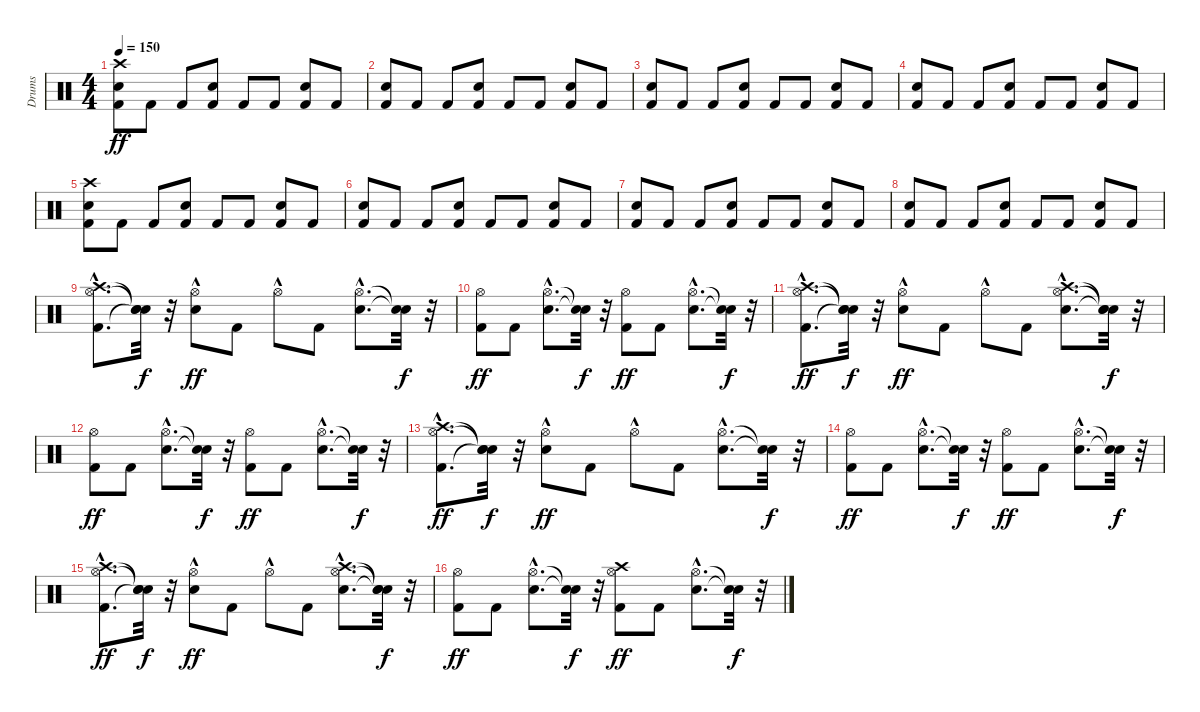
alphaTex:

\track ("Drums" "Drums") {instrument percussion}
\staff {score}
\articulation defaults
\ts (4 4)
\tempo 150
\clef neutral
\ks c
("Kick (hit) 2" "Snare (hit) 2" "Crash high (hit)").8{dy ff} "Kick (hit) 2".8 "Kick (hit) 2".8 ("Kick (hit) 2" "Snare (hit) 2").8 "Kick (hit) 2".8 "Kick (hit) 2".8 ("Kick (hit) 2" "Snare (hit) 2").8 "Kick (hit) 2".8 |
("Kick (hit) 2" "Snare (hit) 2").8 "Kick (hit) 2".8 "Kick (hit) 2".8 ("Kick (hit) 2" "Snare (hit) 2").8 "Kick (hit) 2".8 "Kick (hit) 2".8 ("Kick (hit) 2" "Snare (hit) 2").8 "Kick (hit) 2".8 |
("Kick (hit) 2" "Snare (hit) 2").8 "Kick (hit) 2".8 "Kick (hit) 2".8 ("Kick (hit) 2" "Snare (hit) 2").8 "Kick (hit) 2".8 "Kick (hit) 2".8 ("Kick (hit) 2" "Snare (hit) 2").8 "Kick (hit) 2".8 |
("Kick (hit) 2" "Snare (hit) 2").8 "Kick (hit) 2".8 "Kick (hit) 2".8 ("Kick (hit) 2" "Snare (hit) 2").8 "Kick (hit) 2".8 "Kick (hit) 2".8 ("Kick (hit) 2" "Snare (hit) 2").8 "Kick (hit) 2".8 |
("Kick (hit) 2" "Snare (hit) 2" "Crash high (hit)").8 "Kick (hit) 2".8 "Kick (hit) 2".8 ("Kick (hit) 2" "Snare (hit) 2").8 "Kick (hit) 2".8 "Kick (hit) 2".8 ("Kick (hit) 2" "Snare (hit) 2").8 "Kick (hit) 2".8 |
("Kick (hit) 2" "Snare (hit) 2").8 "Kick (hit) 2".8 "Kick (hit) 2".8 ("Kick (hit) 2" "Snare (hit) 2").8 "Kick (hit) 2".8 "Kick (hit) 2".8 ("Kick (hit) 2" "Snare (hit) 2").8 "Kick (hit) 2".8 |
("Kick (hit) 2" "Snare (hit) 2").8 "Kick (hit) 2".8 "Kick (hit) 2".8 ("Kick (hit) 2" "Snare (hit) 2").8 "Kick (hit) 2".8 "Kick (hit) 2".8 ("Kick (hit) 2" "Snare (hit) 2").8 "Kick (hit) 2".8 |
("Kick (hit) 2" "Snare (hit) 2").8 "Kick (hit) 2".8 "Kick (hit) 2".8 ("Kick (hit) 2" "Snare (hit) 2").8 "Kick (hit) 2".8 "Kick (hit) 2".8 ("Kick (hit) 2" "Snare (hit) 2").8 "Kick (hit) 2".8 |
("Kick (hit) 2"{hac} "Hi-Hat (open)"{hac} "Crash high (hit)"{hac}).8{d} ("Snare (hit)"{t} "Snare (hit)"{t} "Snare (hit)"{t}).32{dy f} r.32 ("Snare (hit) 2"{hac} "Hi-Hat (open)"{hac}).8{dy ff} "Kick (hit) 2".8 "Hi-Hat (open)"{hac}.8 "Kick (hit) 2".8 ("Snare (hit) 2"{hac} "Hi-Hat (open)"{hac}).8{d} ("Snare (hit)"{t} "Snare (hit)"{t}).32{dy f} r.32 |
("Kick (hit) 2" "Hi-Hat (open)").8{dy ff} "Kick (hit) 2".8 ("Snare (hit) 2"{hac} "Hi-Hat (open)"{hac}).8{d} ("Snare (hit)"{t} "Snare (hit)"{t}).32{dy f} r.32 ("Kick (hit) 2" "Hi-Hat (open)").8{dy ff} "Kick (hit) 2".8 ("Snare (hit) 2"{hac} "Hi-Hat (open)"{hac}).8{d} ("Snare (hit)"{t} "Snare (hit)"{t}).32{dy f} r.32 |
("Kick (hit) 2"{hac} "Hi-Hat (open)"{hac} "Crash high (hit)"{hac}).8{d dy ff} ("Snare (hit)"{t} "Snare (hit)"{t} "Snare (hit)"{t}).32{dy f} r.32 ("Snare (hit) 2"{hac} "Hi-Hat (open)"{hac}).8{dy ff} "Kick (hit) 2".8 "Hi-Hat (open)"{hac}.8 "Kick (hit) 2".8 ("Snare (hit) 2"{hac} "Hi-Hat (open)"{hac} "Crash high (hit)"{hac}).8{d} ("Snare (hit)"{t} "Snare (hit)"{t} "Snare (hit)"{t}).32{dy f} r.32 |
("Kick (hit) 2" "Hi-Hat (open)").8{dy ff} "Kick (hit) 2".8 ("Snare (hit) 2"{hac} "Hi-Hat (open)"{hac}).8{d} ("Snare (hit)"{t} "Snare (hit)"{t}).32{dy f} r.32 ("Kick (hit) 2" "Hi-Hat (open)").8{dy ff} "Kick (hit) 2".8 ("Snare (hit) 2"{hac} "Hi-Hat (open)"{hac}).8{d} ("Snare (hit)"{t} "Snare (hit)"{t}).32{dy f} r.32 |
("Kick (hit) 2"{hac} "Hi-Hat (open)"{hac} "Crash high (hit)"{hac}).8{d dy ff} ("Snare (hit)"{t} "Snare (hit)"{t} "Snare (hit)"{t}).32{dy f} r.32 ("Snare (hit) 2"{hac} "Hi-Hat (open)"{hac}).8{dy ff} "Kick (hit) 2".8 "Hi-Hat (open)"{hac}.8 "Kick (hit) 2".8 ("Snare (hit) 2"{hac} "Hi-Hat (open)"{hac}).8{d} ("Snare (hit)"{t} "Snare (hit)"{t}).32{dy f} r.32 |
("Kick (hit) 2" "Hi-Hat (open)").8{dy ff} "Kick (hit) 2".8 ("Snare (hit) 2"{hac} "Hi-Hat (open)"{hac}).8{d} ("Snare (hit)"{t} "Snare (hit)"{t}).32{dy f} r.32 ("Kick (hit) 2" "Hi-Hat (open)").8{dy ff} "Kick (hit) 2".8 ("Snare (hit) 2"{hac} "Hi-Hat (open)"{hac}).8{d} ("Snare (hit)"{t} "Snare (hit)"{t}).32{dy f} r.32 |
("Kick (hit) 2"{hac} "Hi-Hat (open)"{hac} "Crash high (hit)"{hac}).8{d dy ff} ("Snare (hit)"{t} "Snare (hit)"{t} "Snare (hit)"{t}).32{dy f} r.32 ("Snare (hit) 2"{hac} "Hi-Hat (open)"{hac}).8{dy ff} "Kick (hit) 2".8 "Hi-Hat (open)"{hac}.8 "Kick (hit) 2".8 ("Snare (hit) 2"{hac} "Hi-Hat (open)"{hac} "Crash high (hit)"{hac}).8{d} ("Snare (hit)"{t} "Snare (hit)"{t} "Snare (hit)"{t}).32{dy f} r.32 |
("Kick (hit) 2" "Hi-Hat (open)").8{dy ff} "Kick (hit) 2".8 ("Snare (hit) 2"{hac} "Hi-Hat (open)"{hac}).8{d} ("Snare (hit)"{t} "Snare (hit)"{t}).32{dy f} r.32 ("Kick (hit) 2" "Hi-Hat (open)" "Crash high (hit)").8{dy ff} "Kick (hit) 2".8 ("Snare (hit) 2"{hac} "Hi-Hat (open)"{hac}).8{d} ("Snare (hit)"{t} "Snare (hit)"{t}).32{dy f} r.32
